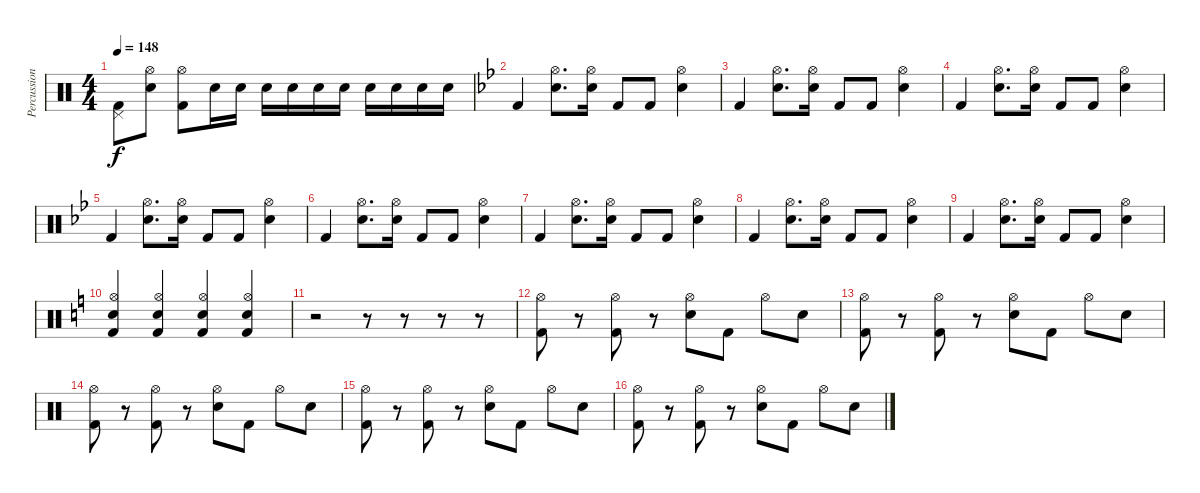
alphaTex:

\track ("Percussion" "Percussion") {instrument percussion}
\staff {score}
\articulation defaults
\ts (4 4)
\tempo 148
\clef neutral
\ks c
("Pedal Hi-Hat (hit)" "Kick (hit) 2").8{dy f} ("Hi-Hat (open)" "Electric Snare (hit)").8 ("Hi-Hat (open)" "Kick (hit) 2").8 "Electric Snare (hit)".16 "Electric Snare (hit)".16 "Electric Snare (hit)".16 "Electric Snare (hit)".16 "Electric Snare (hit)".16 "Electric Snare (hit)".16 "Electric Snare (hit)".16 "Electric Snare (hit)".16 "Electric Snare (hit)".16 "Electric Snare (hit)".16 |
\ks bb "Kick (hit) 2".4
("Hi-Hat (open)" "Electric Snare (hit)").8{d} ("Hi-Hat (open)" "Electric Snare (hit)").16 "Kick (hit) 2".8 "Kick (hit) 2".8 ("Hi-Hat (open)" "Electric Snare (hit)").4 |
"Kick (hit) 2".4 ("Hi-Hat (open)" "Electric Snare (hit)").8{d} ("Hi-Hat (open)" "Electric Snare (hit)").16 "Kick (hit) 2".8 "Kick (hit) 2".8 ("Hi-Hat (open)" "Electric Snare (hit)").4 |
"Kick (hit) 2".4 ("Hi-Hat (open)" "Electric Snare (hit)").8{d} ("Hi-Hat (open)" "Electric Snare (hit)").16 "Kick (hit) 2".8 "Kick (hit) 2".8 ("Hi-Hat (open)" "Electric Snare (hit)").4 |
"Kick (hit) 2".4 ("Hi-Hat (open)" "Electric Snare (hit)").8{d} ("Hi-Hat (open)" "Electric Snare (hit)").16 "Kick (hit) 2".8 "Kick (hit) 2".8 ("Hi-Hat (open)" "Electric Snare (hit)").4 |
"Kick (hit) 2".4 ("Hi-Hat (open)" "Electric Snare (hit)").8{d} ("Hi-Hat (open)" "Electric Snare (hit)").16 "Kick (hit) 2".8 "Kick (hit) 2".8 ("Hi-Hat (open)" "Electric Snare (hit)").4 |
"Kick (hit) 2".4 ("Hi-Hat (open)" "Electric Snare (hit)").8{d} ("Hi-Hat (open)" "Electric Snare (hit)").16 "Kick (hit) 2".8 "Kick (hit) 2".8 ("Hi-Hat (open)" "Electric Snare (hit)").4 |
"Kick (hit) 2".4 ("Hi-Hat (open)" "Electric Snare (hit)").8{d} ("Hi-Hat (open)" "Electric Snare (hit)").16 "Kick (hit) 2".8 "Kick (hit) 2".8 ("Hi-Hat (open)" "Electric Snare (hit)").4 |
"Kick (hit) 2".4 ("Hi-Hat (open)" "Electric Snare (hit)").8{d} ("Hi-Hat (open)" "Electric Snare (hit)").16 "Kick (hit) 2".8 "Kick (hit) 2".8 ("Hi-Hat (open)" "Electric Snare (hit)").4 |
\ks c
("Hi-Hat (open)" "Electric Snare (hit)" "Kick (hit) 2").4 ("Hi-Hat (open)" "Electric Snare (hit)" "Kick (hit) 2").4 ("Hi-Hat (open)" "Electric Snare (hit)" "Kick (hit) 2").4 ("Hi-Hat (open)" "Electric Snare (hit)" "Kick (hit) 2").4 |
r.2 r.8 r.8 r.8 r.8 |
("Hi-Hat (open)" "Kick (hit) 2").8 r.8 ("Hi-Hat (open)" "Kick (hit) 2").8 r.8 ("Hi-Hat (open)" "Electric Snare (hit)").8 "Kick (hit) 2".8 "Hi-Hat (open)".8 "Electric Snare (hit)".8 |
("Hi-Hat (open)" "Kick (hit) 2").8 r.8 ("Hi-Hat (open)" "Kick (hit) 2").8 r.8 ("Hi-Hat (open)" "Electric Snare (hit)").8 "Kick (hit) 2".8 "Hi-Hat (open)".8 "Electric Snare (hit)".8 |
("Hi-Hat (open)" "Kick (hit) 2").8 r.8 ("Hi-Hat (open)" "Kick (hit) 2").8 r.8 ("Hi-Hat (open)" "Electric Snare (hit)").8 "Kick (hit) 2".8 "Hi-Hat (open)".8 "Electric Snare (hit)".8 |
("Hi-Hat (open)" "Kick (hit) 2").8 r.8 ("Hi-Hat (open)" "Kick (hit) 2").8 r.8 ("Hi-Hat (open)" "Electric Snare (hit)").8 "Kick (hit) 2".8 "Hi-Hat (open)".8 "Electric Snare (hit)".8 |
("Hi-Hat (open)" "Kick (hit) 2").8 r.8 ("Hi-Hat (open)" "Kick (hit) 2").8 r.8 ("Hi-Hat (open)" "Electric Snare (hit)").8 "Kick (hit) 2".8 "Hi-Hat (open)".8 "Electric Snare (hit)".8
